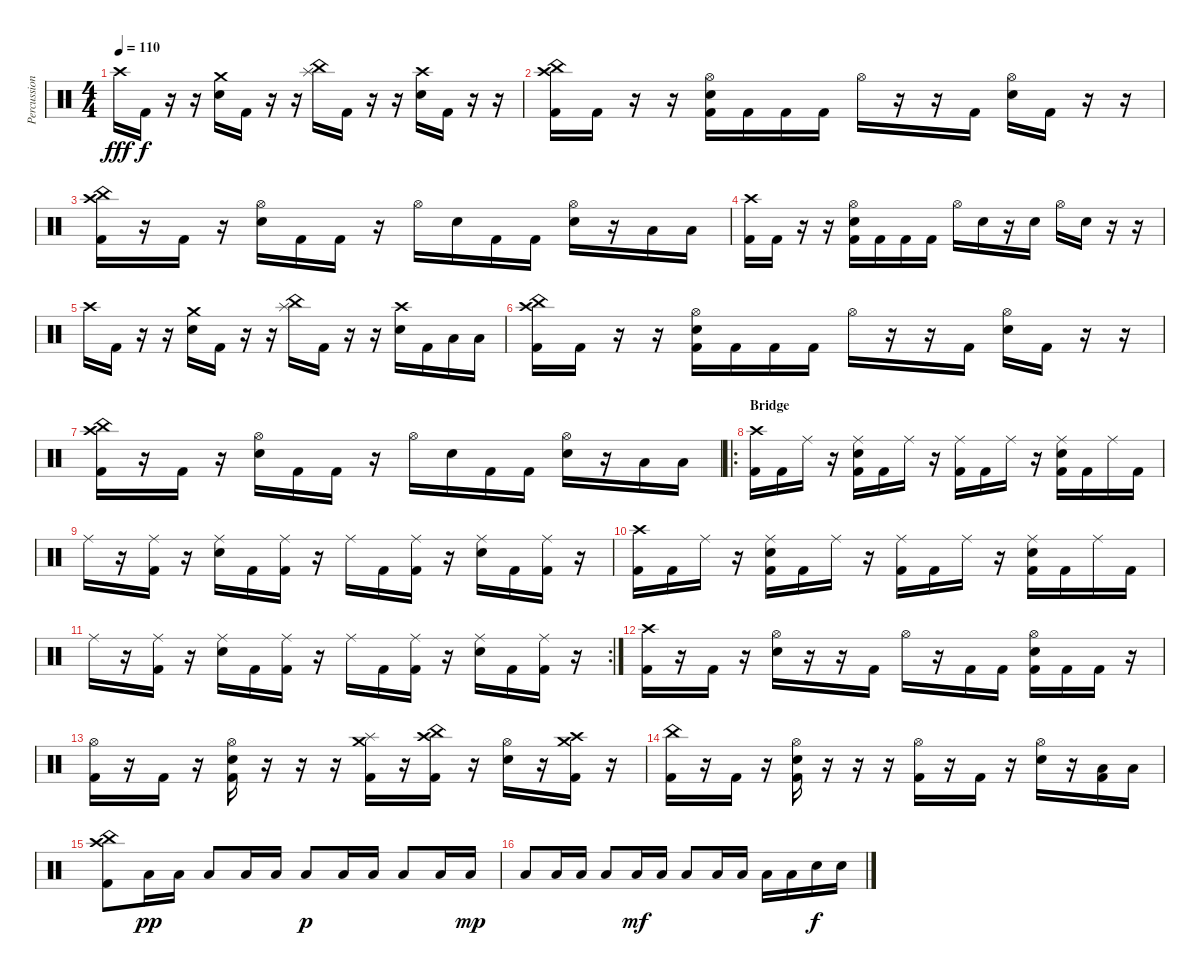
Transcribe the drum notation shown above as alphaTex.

\track ("Percussion" "Percussion") {instrument percussion}
\staff {score}
\articulation defaults
\ts (4 4)
\tempo 110
\clef neutral
\ks c "Crash high (hit)".16{dy fff} "Kick (hit) 2".16{dy f}
r.16 r.16 ("Crash medium (hit)" "Electric Snare (hit)").16 "Kick (hit) 2".16 r.16 r.16 ("Splash (hit)" "China (hit)").16 "Kick (hit) 2".16 r.16 r.16 ("Crash high (hit)" "Electric Snare (hit)").16 "Kick (hit) 2".16 r.16 r.16 |
("China (hit)" "Crash high (hit)" "Kick (hit) 2").16 "Kick (hit) 2".16 r.16 r.16 ("Hi-Hat (open)" "Electric Snare (hit)" "Kick (hit) 2").16 "Kick (hit) 2".16 "Kick (hit) 2".16 "Kick (hit) 2".16 "Hi-Hat (open)".16 r.16 r.16 "Kick (hit) 2".16 ("Hi-Hat (open)" "Electric Snare (hit)").16 "Kick (hit) 2".16 r.16 r.16 |
("China (hit)" "Crash high (hit)" "Kick (hit) 2").16 r.16 "Kick (hit) 2".16 r.16 ("Hi-Hat (open)" "Electric Snare (hit)").16 "Kick (hit) 2".16 "Kick (hit) 2".16 r.16 "Hi-Hat (open)".16 "Electric Snare (hit)".16 "Kick (hit) 2".16 "Kick (hit) 2".16 ("Hi-Hat (open)" "Electric Snare (hit)").16 r.16 "Low Tom (hit)".16 "Low Floor Tom (hit)".16 |
("Crash high (hit)" "Kick (hit) 2").16 "Kick (hit) 2".16 r.16 r.16 ("Hi-Hat (open)" "Electric Snare (hit)" "Kick (hit) 2").16 "Kick (hit) 2".16 "Kick (hit) 2".16 "Kick (hit) 2".16 "Hi-Hat (open)".16 "Electric Snare (hit)".16 r.16 "Electric Snare (hit)".16 "Hi-Hat (open)".16 "Electric Snare (hit)".16 r.16 r.16 |
"Crash high (hit)".16 "Kick (hit) 2".16 r.16 r.16 ("Crash medium (hit)" "Electric Snare (hit)").16 "Kick (hit) 2".16 r.16 r.16 ("Splash (hit)" "China (hit)").16 "Kick (hit) 2".16 r.16 r.16 ("Crash high (hit)" "Electric Snare (hit)").16 "Kick (hit) 2".16 "Low Tom (hit)".16 "Low Floor Tom (hit)".16 |
("China (hit)" "Crash high (hit)" "Kick (hit) 2").16 "Kick (hit) 2".16 r.16 r.16 ("Hi-Hat (open)" "Electric Snare (hit)" "Kick (hit) 2").16 "Kick (hit) 2".16 "Kick (hit) 2".16 "Kick (hit) 2".16 "Hi-Hat (open)".16 r.16 r.16 "Kick (hit) 2".16 ("Hi-Hat (open)" "Electric Snare (hit)").16 "Kick (hit) 2".16 r.16 r.16 |
("China (hit)" "Crash high (hit)" "Kick (hit) 2").16 r.16 "Kick (hit) 2".16 r.16 ("Hi-Hat (open)" "Electric Snare (hit)").16 "Kick (hit) 2".16 "Kick (hit) 2".16 r.16 "Hi-Hat (open)".16 "Electric Snare (hit)".16 "Kick (hit) 2".16 "Kick (hit) 2".16 ("Hi-Hat (open)" "Electric Snare (hit)").16 r.16 "Low Tom (hit)".16 "Low Floor Tom (hit)".16 |
\ro
\section ("" "Bridge")
("Crash high (hit)" "Kick (hit) 2").16 "Kick (hit) 2".16 "Ride (middle)".16 r.16 ("Ride (middle)" "Electric Snare (hit)" "Kick (hit) 2").16 "Kick (hit) 2".16 "Ride (middle)".16 r.16 ("Ride (middle)" "Kick (hit) 2").16 "Kick (hit) 2".16 "Ride (middle)".16 r.16 ("Ride (middle)" "Electric Snare (hit)" "Kick (hit) 2").16 "Kick (hit) 2".16 "Ride (middle)".16 "Kick (hit) 2".16 |
"Ride (middle)".16 r.16 ("Ride (middle)" "Kick (hit) 2").16 r.16 ("Ride (middle)" "Electric Snare (hit)").16 "Kick (hit) 2".16 ("Ride (middle)" "Kick (hit) 2").16 r.16 "Ride (middle)".16 "Kick (hit) 2".16 ("Ride (middle)" "Kick (hit) 2").16 r.16 ("Ride (middle)" "Electric Snare (hit)").16 "Kick (hit) 2".16 ("Ride (middle)" "Kick (hit) 2").16 r.16 |
("Crash high (hit)" "Kick (hit) 2").16 "Kick (hit) 2".16 "Ride (middle)".16 r.16 ("Ride (middle)" "Electric Snare (hit)" "Kick (hit) 2").16 "Kick (hit) 2".16 "Ride (middle)".16 r.16 ("Ride (middle)" "Kick (hit) 2").16 "Kick (hit) 2".16 "Ride (middle)".16 r.16 ("Ride (middle)" "Electric Snare (hit)" "Kick (hit) 2").16 "Kick (hit) 2".16 "Ride (middle)".16 "Kick (hit) 2".16 |
\rc 2 "Ride (middle)".16
r.16 ("Ride (middle)" "Kick (hit) 2").16 r.16 ("Ride (middle)" "Electric Snare (hit)").16 "Kick (hit) 2".16 ("Ride (middle)" "Kick (hit) 2").16 r.16 "Ride (middle)".16 "Kick (hit) 2".16 ("Ride (middle)" "Kick (hit) 2").16 r.16 ("Ride (middle)" "Electric Snare (hit)").16 "Kick (hit) 2".16 ("Ride (middle)" "Kick (hit) 2").16 r.16 |
("Crash high (hit)" "Kick (hit) 2").16 r.16 "Kick (hit) 2".16 r.16 ("Hi-Hat (open)" "Electric Snare (hit)").16 r.16 r.16 "Kick (hit) 2".16 "Hi-Hat (open)".16 r.16 "Kick (hit) 2".16 "Kick (hit) 2".16 ("Hi-Hat (open)" "Electric Snare (hit)" "Kick (hit) 2").16 "Kick (hit) 2".16 "Kick (hit) 2".16 r.16 |
("Hi-Hat (open)" "Kick (hit) 2").16 r.16 "Kick (hit) 2".16 r.16 ("Hi-Hat (open)" "Electric Snare (hit)" "Kick (hit) 2").16 r.16 r.16 r.16 ("Splash (hit)" "Crash medium (hit)" "Kick (hit) 2").16 r.16 ("China (hit)" "Crash high (hit)" "Kick (hit) 2").16 r.16 ("Hi-Hat (open)" "Electric Snare (hit)").16 r.16 ("Crash high (hit)" "Crash medium (hit)" "Kick (hit) 2").16 r.16 |
("China (hit)" "Kick (hit) 2").16 r.16 "Kick (hit) 2".16 r.16 ("Hi-Hat (open)" "Electric Snare (hit)" "Kick (hit) 2").16 r.16 r.16 r.16 ("Hi-Hat (open)" "Kick (hit) 2").16 r.16 "Kick (hit) 2".16 r.16 ("Hi-Hat (open)" "Electric Snare (hit)").16 r.16 ("Low Tom (hit)" "Kick (hit) 2").16 "Low Floor Tom (hit)".16 |
("China (hit)" "Crash high (hit)" "Kick (hit) 2").8 "Low Floor Tom (hit)".16{dy pp} "Low Floor Tom (hit)".16 "Low Floor Tom (hit)".8 "Low Floor Tom (hit)".16 "Low Floor Tom (hit)".16 "Low Floor Tom (hit)".8{dy p} "Low Floor Tom (hit)".16 "Low Floor Tom (hit)".16 "Low Floor Tom (hit)".8 "Low Floor Tom (hit)".16 "Low Floor Tom (hit)".16{dy mp} |
"Low Floor Tom (hit)".8 "Low Floor Tom (hit)".16 "Low Floor Tom (hit)".16 "Low Floor Tom (hit)".8 "Low Floor Tom (hit)".16{dy mf} "Low Floor Tom (hit)".16 "Low Floor Tom (hit)".8 "Low Floor Tom (hit)".16 "Low Floor Tom (hit)".16 "Low Floor Tom (hit)".16 "Low Floor Tom (hit)".16 "Electric Snare (hit)".16{dy f} "Electric Snare (hit)".16
